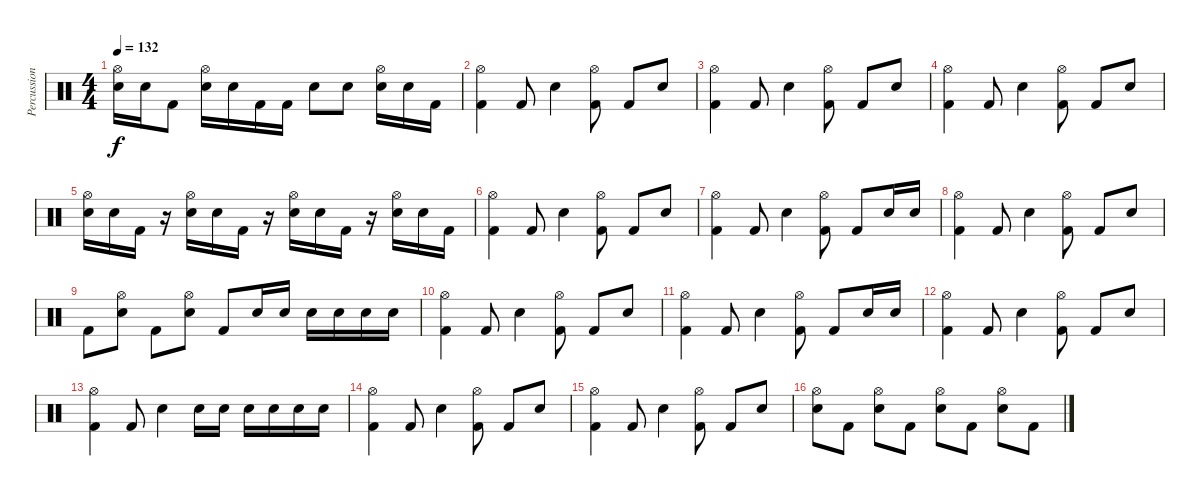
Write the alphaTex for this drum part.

\track ("Percussion" "Percussion") {instrument percussion}
\staff {score}
\articulation defaults
\ts (4 4)
\tempo 132
\clef neutral
\ks c
("Snare (hit) 2" "Hi-Hat (open)").16{dy f} "Snare (hit) 2".16 "Kick (hit) 2".8 ("Snare (hit) 2" "Hi-Hat (open)").16 "Snare (hit) 2".16 "Kick (hit) 2".16 "Kick (hit) 2".16 "Snare (hit) 2".8 "Snare (hit) 2".8 ("Snare (hit) 2" "Hi-Hat (open)").16 "Snare (hit) 2".16 "Kick (hit) 2".16 |
("Kick (hit) 2" "Hi-Hat (open)").4 "Kick (hit) 2".8 "Snare (hit) 2".4 ("Kick (hit) 2" "Hi-Hat (open)").8 "Kick (hit) 2".8 "Snare (hit) 2".8 |
("Kick (hit) 2" "Hi-Hat (open)").4 "Kick (hit) 2".8 "Snare (hit) 2".4 ("Kick (hit) 2" "Hi-Hat (open)").8 "Kick (hit) 2".8 "Snare (hit) 2".8 |
("Kick (hit) 2" "Hi-Hat (open)").4 "Kick (hit) 2".8 "Snare (hit) 2".4 ("Kick (hit) 2" "Hi-Hat (open)").8 "Kick (hit) 2".8 "Snare (hit) 2".8 |
("Snare (hit) 2" "Hi-Hat (open)").16 "Snare (hit) 2".16 "Kick (hit) 2".16 r.16 ("Snare (hit) 2" "Hi-Hat (open)").16 "Snare (hit) 2".16 "Kick (hit) 2".16 r.16 ("Snare (hit) 2" "Hi-Hat (open)").16 "Snare (hit) 2".16 "Kick (hit) 2".16 r.16 ("Snare (hit) 2" "Hi-Hat (open)").16 "Snare (hit) 2".16 "Kick (hit) 2".16 |
("Kick (hit) 2" "Hi-Hat (open)").4 "Kick (hit) 2".8 "Snare (hit) 2".4 ("Kick (hit) 2" "Hi-Hat (open)").8 "Kick (hit) 2".8 "Snare (hit) 2".8 |
("Kick (hit) 2" "Hi-Hat (open)").4 "Kick (hit) 2".8 "Snare (hit) 2".4 ("Kick (hit) 2" "Hi-Hat (open)").8 "Kick (hit) 2".8 "Electric Snare (hit)".16 "Electric Snare (hit)".16 |
("Kick (hit) 2" "Hi-Hat (open)").4 "Kick (hit) 2".8 "Snare (hit) 2".4 ("Kick (hit) 2" "Hi-Hat (open)").8 "Kick (hit) 2".8 "Snare (hit) 2".8 |
"Kick (hit) 2".8 ("Snare (hit) 2" "Hi-Hat (open)").8 "Kick (hit) 2".8 ("Snare (hit) 2" "Hi-Hat (open)").8 "Kick (hit) 2".8 "Electric Snare (hit)".16 "Electric Snare (hit)".16 "Electric Snare (hit)".16 "Electric Snare (hit)".16 "Electric Snare (hit)".16 "Electric Snare (hit)".16 |
("Kick (hit) 2" "Hi-Hat (open)").4 "Kick (hit) 2".8 "Snare (hit) 2".4 ("Kick (hit) 2" "Hi-Hat (open)").8 "Kick (hit) 2".8 "Snare (hit) 2".8 |
("Kick (hit) 2" "Hi-Hat (open)").4 "Kick (hit) 2".8 "Snare (hit) 2".4 ("Kick (hit) 2" "Hi-Hat (open)").8 "Kick (hit) 2".8 "Electric Snare (hit)".16 "Electric Snare (hit)".16 |
("Kick (hit) 2" "Hi-Hat (open)").4 "Kick (hit) 2".8 "Snare (hit) 2".4 ("Kick (hit) 2" "Hi-Hat (open)").8 "Kick (hit) 2".8 "Snare (hit) 2".8 |
("Kick (hit) 2" "Hi-Hat (open)").4 "Kick (hit) 2".8 "Snare (hit) 2".4 "Electric Snare (hit)".16 "Electric Snare (hit)".16 "Electric Snare (hit)".16 "Electric Snare (hit)".16 "Electric Snare (hit)".16 "Electric Snare (hit)".16 |
("Kick (hit) 2" "Hi-Hat (open)").4 "Kick (hit) 2".8 "Snare (hit) 2".4 ("Kick (hit) 2" "Hi-Hat (open)").8 "Kick (hit) 2".8 "Snare (hit) 2".8 |
("Kick (hit) 2" "Hi-Hat (open)").4 "Kick (hit) 2".8 "Snare (hit) 2".4 ("Kick (hit) 2" "Hi-Hat (open)").8 "Kick (hit) 2".8 "Snare (hit) 2".8 |
("Snare (hit) 2" "Hi-Hat (open)").8 "Kick (hit) 2".8 ("Snare (hit) 2" "Hi-Hat (open)").8 "Kick (hit) 2".8 ("Snare (hit) 2" "Hi-Hat (open)").8 "Kick (hit) 2".8 ("Snare (hit) 2" "Hi-Hat (open)").8 "Kick (hit) 2".8
